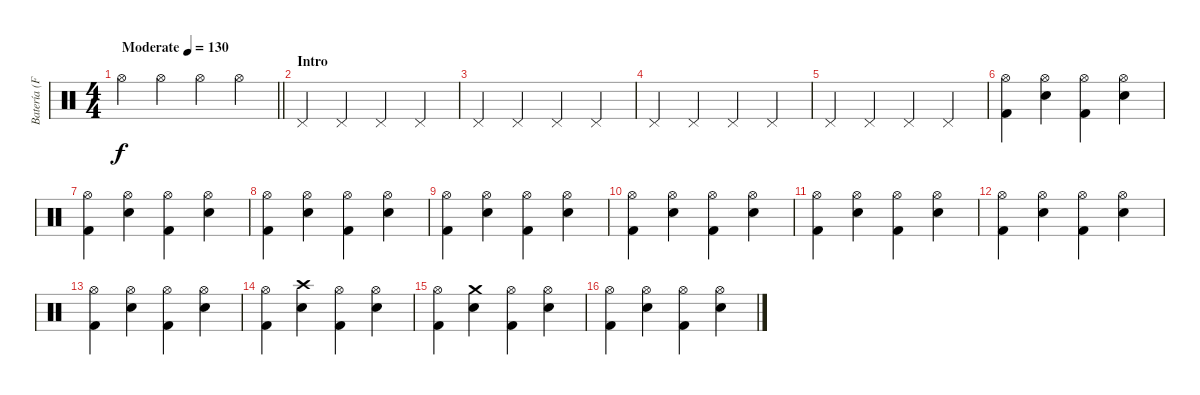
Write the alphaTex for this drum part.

\track ("Batería (F. Scarcella)" "Batería (F") {instrument percussion}
\staff {score}
\articulation defaults
\ts (4 4)
\tempo (130 "Moderate")
\clef neutral
\barLineRight lightlight
\ks c "Hi-Hat (open)".4{dy f} "Hi-Hat (open)".4 "Hi-Hat (open)".4 "Hi-Hat (open)".4
|
\section ("" "Intro")
"Pedal Hi-Hat (hit)".4 "Pedal Hi-Hat (hit)".4 "Pedal Hi-Hat (hit)".4 "Pedal Hi-Hat (hit)".4 |
"Pedal Hi-Hat (hit)".4 "Pedal Hi-Hat (hit)".4 "Pedal Hi-Hat (hit)".4 "Pedal Hi-Hat (hit)".4 |
"Pedal Hi-Hat (hit)".4 "Pedal Hi-Hat (hit)".4 "Pedal Hi-Hat (hit)".4 "Pedal Hi-Hat (hit)".4 |
"Pedal Hi-Hat (hit)".4 "Pedal Hi-Hat (hit)".4 "Pedal Hi-Hat (hit)".4 "Pedal Hi-Hat (hit)".4 |
("Kick (hit) 2" "Hi-Hat (open)").4 ("Snare (hit) 2" "Hi-Hat (open)").4 ("Kick (hit) 2" "Hi-Hat (open)").4 ("Snare (hit) 2" "Hi-Hat (open)").4 |
("Kick (hit) 2" "Hi-Hat (open)").4 ("Snare (hit) 2" "Hi-Hat (open)").4 ("Kick (hit) 2" "Hi-Hat (open)").4 ("Snare (hit) 2" "Hi-Hat (open)").4 |
("Kick (hit) 2" "Hi-Hat (open)").4 ("Snare (hit) 2" "Hi-Hat (open)").4 ("Kick (hit) 2" "Hi-Hat (open)").4 ("Snare (hit) 2" "Hi-Hat (open)").4 |
("Kick (hit) 2" "Hi-Hat (open)").4 ("Snare (hit) 2" "Hi-Hat (open)").4 ("Kick (hit) 2" "Hi-Hat (open)").4 ("Snare (hit) 2" "Hi-Hat (open)").4 |
("Kick (hit) 2" "Hi-Hat (open)").4 ("Snare (hit) 2" "Hi-Hat (open)").4 ("Kick (hit) 2" "Hi-Hat (open)").4 ("Snare (hit) 2" "Hi-Hat (open)").4 |
("Kick (hit) 2" "Hi-Hat (open)").4 ("Snare (hit) 2" "Hi-Hat (open)").4 ("Kick (hit) 2" "Hi-Hat (open)").4 ("Snare (hit) 2" "Hi-Hat (open)").4 |
("Kick (hit) 2" "Hi-Hat (open)").4 ("Snare (hit) 2" "Hi-Hat (open)").4 ("Kick (hit) 2" "Hi-Hat (open)").4 ("Snare (hit) 2" "Hi-Hat (open)").4 |
("Kick (hit) 2" "Hi-Hat (open)").4 ("Snare (hit) 2" "Hi-Hat (open)").4 ("Kick (hit) 2" "Hi-Hat (open)").4 ("Snare (hit) 2" "Hi-Hat (open)").4 |
("Kick (hit) 2" "Hi-Hat (open)").4 ("Snare (hit) 2" "Crash high (hit)").4 ("Kick (hit) 2" "Hi-Hat (open)").4 ("Snare (hit) 2" "Hi-Hat (open)").4 |
("Kick (hit) 2" "Hi-Hat (open)").4 ("Snare (hit) 2" "Crash medium (hit)").4 ("Kick (hit) 2" "Hi-Hat (open)").4 ("Snare (hit) 2" "Hi-Hat (open)").4 |
("Kick (hit) 2" "Hi-Hat (open)").4 ("Snare (hit) 2" "Hi-Hat (open)").4 ("Kick (hit) 2" "Hi-Hat (open)").4 ("Snare (hit) 2" "Hi-Hat (open)").4
